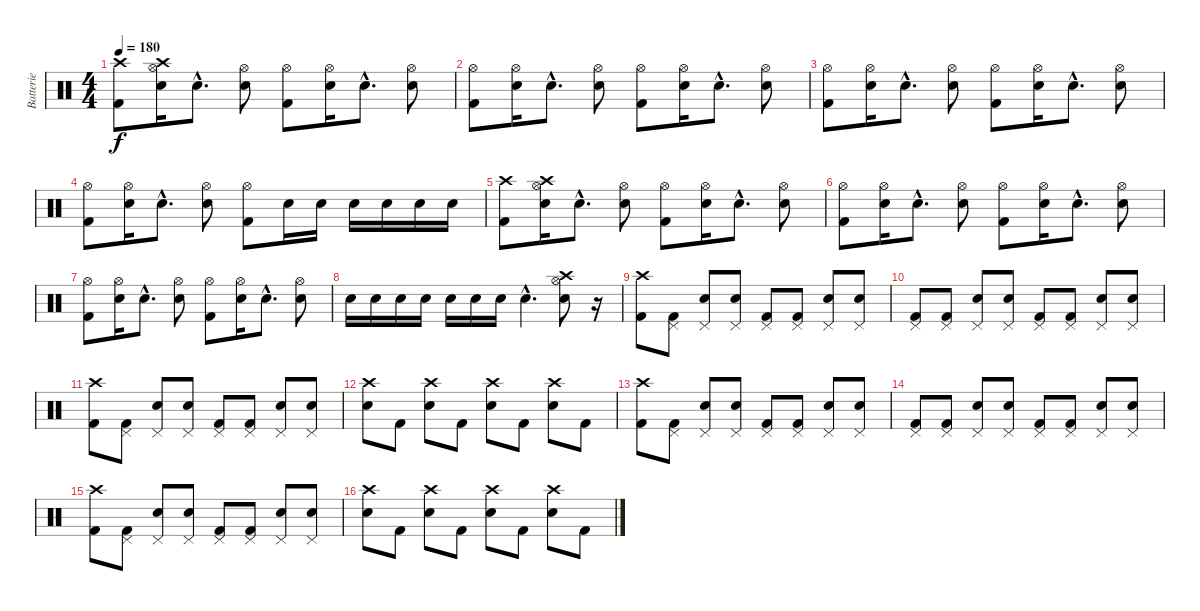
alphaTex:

\track ("Batterie" "Batterie") {instrument percussion}
\staff {score}
\articulation defaults
\ts (4 4)
\tempo 180
\clef neutral
\ks c
("Crash high (hit)" "Kick (hit) 2").8{dy f} ("Crash high (hit)" "Hi-Hat (open)" "Electric Snare (hit)").16 "Electric Snare (hit)"{hac}.8{d} ("Hi-Hat (open)" "Electric Snare (hit)").8 ("Hi-Hat (open)" "Kick (hit) 2").8 ("Hi-Hat (open)" "Electric Snare (hit)").16 "Electric Snare (hit)"{hac}.8{d} ("Hi-Hat (open)" "Electric Snare (hit)").8 |
("Hi-Hat (open)" "Kick (hit) 2").8 ("Hi-Hat (open)" "Electric Snare (hit)").16 "Electric Snare (hit)"{hac}.8{d} ("Hi-Hat (open)" "Electric Snare (hit)").8 ("Hi-Hat (open)" "Kick (hit) 2").8 ("Hi-Hat (open)" "Electric Snare (hit)").16 "Electric Snare (hit)"{hac}.8{d} ("Hi-Hat (open)" "Electric Snare (hit)").8 |
("Hi-Hat (open)" "Kick (hit) 2").8 ("Hi-Hat (open)" "Electric Snare (hit)").16 "Electric Snare (hit)"{hac}.8{d} ("Hi-Hat (open)" "Electric Snare (hit)").8 ("Hi-Hat (open)" "Kick (hit) 2").8 ("Hi-Hat (open)" "Electric Snare (hit)").16 "Electric Snare (hit)"{hac}.8{d} ("Hi-Hat (open)" "Electric Snare (hit)").8 |
("Hi-Hat (open)" "Kick (hit) 2").8 ("Hi-Hat (open)" "Electric Snare (hit)").16 "Electric Snare (hit)"{hac}.8{d} ("Hi-Hat (open)" "Electric Snare (hit)").8 ("Hi-Hat (open)" "Kick (hit) 2").8 "Electric Snare (hit)".16 "Electric Snare (hit)".16 "Electric Snare (hit)".16 "Electric Snare (hit)".16 "Electric Snare (hit)".16 "Electric Snare (hit)".16 |
("Crash high (hit)" "Kick (hit) 2").8 ("Crash high (hit)" "Hi-Hat (open)" "Electric Snare (hit)").16 "Electric Snare (hit)"{hac}.8{d} ("Hi-Hat (open)" "Electric Snare (hit)").8 ("Hi-Hat (open)" "Kick (hit) 2").8 ("Hi-Hat (open)" "Electric Snare (hit)").16 "Electric Snare (hit)"{hac}.8{d} ("Hi-Hat (open)" "Electric Snare (hit)").8 |
("Hi-Hat (open)" "Kick (hit) 2").8 ("Hi-Hat (open)" "Electric Snare (hit)").16 "Electric Snare (hit)"{hac}.8{d} ("Hi-Hat (open)" "Electric Snare (hit)").8 ("Hi-Hat (open)" "Kick (hit) 2").8 ("Hi-Hat (open)" "Electric Snare (hit)").16 "Electric Snare (hit)"{hac}.8{d} ("Hi-Hat (open)" "Electric Snare (hit)").8 |
("Hi-Hat (open)" "Kick (hit) 2").8 ("Hi-Hat (open)" "Electric Snare (hit)").16 "Electric Snare (hit)"{hac}.8{d} ("Hi-Hat (open)" "Electric Snare (hit)").8 ("Hi-Hat (open)" "Kick (hit) 2").8 ("Hi-Hat (open)" "Electric Snare (hit)").16 "Electric Snare (hit)"{hac}.8{d} ("Hi-Hat (open)" "Electric Snare (hit)").8 |
"Electric Snare (hit)".16 "Electric Snare (hit)".16 "Electric Snare (hit)".16 "Electric Snare (hit)".16 "Electric Snare (hit)".16 "Electric Snare (hit)".16 "Electric Snare (hit)".16 "Electric Snare (hit)"{hac}.4{d} ("Crash high (hit)" "Hi-Hat (open)" "Electric Snare (hit)").8 r.16 |
("Crash high (hit)" "Kick (hit) 2").8 ("Pedal Hi-Hat (hit)" "Kick (hit) 2").8 ("Pedal Hi-Hat (hit)" "Electric Snare (hit)").8 ("Pedal Hi-Hat (hit)" "Electric Snare (hit)").8 ("Pedal Hi-Hat (hit)" "Kick (hit) 2").8 ("Pedal Hi-Hat (hit)" "Kick (hit) 2").8 ("Pedal Hi-Hat (hit)" "Electric Snare (hit)").8 ("Pedal Hi-Hat (hit)" "Electric Snare (hit)").8 |
("Pedal Hi-Hat (hit)" "Kick (hit) 2").8 ("Pedal Hi-Hat (hit)" "Kick (hit) 2").8 ("Pedal Hi-Hat (hit)" "Electric Snare (hit)").8 ("Pedal Hi-Hat (hit)" "Electric Snare (hit)").8 ("Pedal Hi-Hat (hit)" "Kick (hit) 2").8 ("Pedal Hi-Hat (hit)" "Kick (hit) 2").8 ("Pedal Hi-Hat (hit)" "Electric Snare (hit)").8 ("Pedal Hi-Hat (hit)" "Electric Snare (hit)").8 |
("Crash high (hit)" "Kick (hit) 2").8 ("Pedal Hi-Hat (hit)" "Kick (hit) 2").8 ("Pedal Hi-Hat (hit)" "Electric Snare (hit)").8 ("Pedal Hi-Hat (hit)" "Electric Snare (hit)").8 ("Pedal Hi-Hat (hit)" "Kick (hit) 2").8 ("Pedal Hi-Hat (hit)" "Kick (hit) 2").8 ("Pedal Hi-Hat (hit)" "Electric Snare (hit)").8 ("Pedal Hi-Hat (hit)" "Electric Snare (hit)").8 |
("Crash high (hit)" "Electric Snare (hit)").8 "Kick (hit) 2".8 ("Crash high (hit)" "Electric Snare (hit)").8 "Kick (hit) 2".8 ("Crash high (hit)" "Electric Snare (hit)").8 "Kick (hit) 2".8 ("Crash high (hit)" "Electric Snare (hit)").8 "Kick (hit) 2".8 |
("Crash high (hit)" "Kick (hit) 2").8 ("Pedal Hi-Hat (hit)" "Kick (hit) 2").8 ("Pedal Hi-Hat (hit)" "Electric Snare (hit)").8 ("Pedal Hi-Hat (hit)" "Electric Snare (hit)").8 ("Pedal Hi-Hat (hit)" "Kick (hit) 2").8 ("Pedal Hi-Hat (hit)" "Kick (hit) 2").8 ("Pedal Hi-Hat (hit)" "Electric Snare (hit)").8 ("Pedal Hi-Hat (hit)" "Electric Snare (hit)").8 |
("Pedal Hi-Hat (hit)" "Kick (hit) 2").8 ("Pedal Hi-Hat (hit)" "Kick (hit) 2").8 ("Pedal Hi-Hat (hit)" "Electric Snare (hit)").8 ("Pedal Hi-Hat (hit)" "Electric Snare (hit)").8 ("Pedal Hi-Hat (hit)" "Kick (hit) 2").8 ("Pedal Hi-Hat (hit)" "Kick (hit) 2").8 ("Pedal Hi-Hat (hit)" "Electric Snare (hit)").8 ("Pedal Hi-Hat (hit)" "Electric Snare (hit)").8 |
("Crash high (hit)" "Kick (hit) 2").8 ("Pedal Hi-Hat (hit)" "Kick (hit) 2").8 ("Pedal Hi-Hat (hit)" "Electric Snare (hit)").8 ("Pedal Hi-Hat (hit)" "Electric Snare (hit)").8 ("Pedal Hi-Hat (hit)" "Kick (hit) 2").8 ("Pedal Hi-Hat (hit)" "Kick (hit) 2").8 ("Pedal Hi-Hat (hit)" "Electric Snare (hit)").8 ("Pedal Hi-Hat (hit)" "Electric Snare (hit)").8 |
("Crash high (hit)" "Electric Snare (hit)").8 "Kick (hit) 2".8 ("Crash high (hit)" "Electric Snare (hit)").8 "Kick (hit) 2".8 ("Crash high (hit)" "Electric Snare (hit)").8 "Kick (hit) 2".8 ("Crash high (hit)" "Electric Snare (hit)").8 "Kick (hit) 2".8
